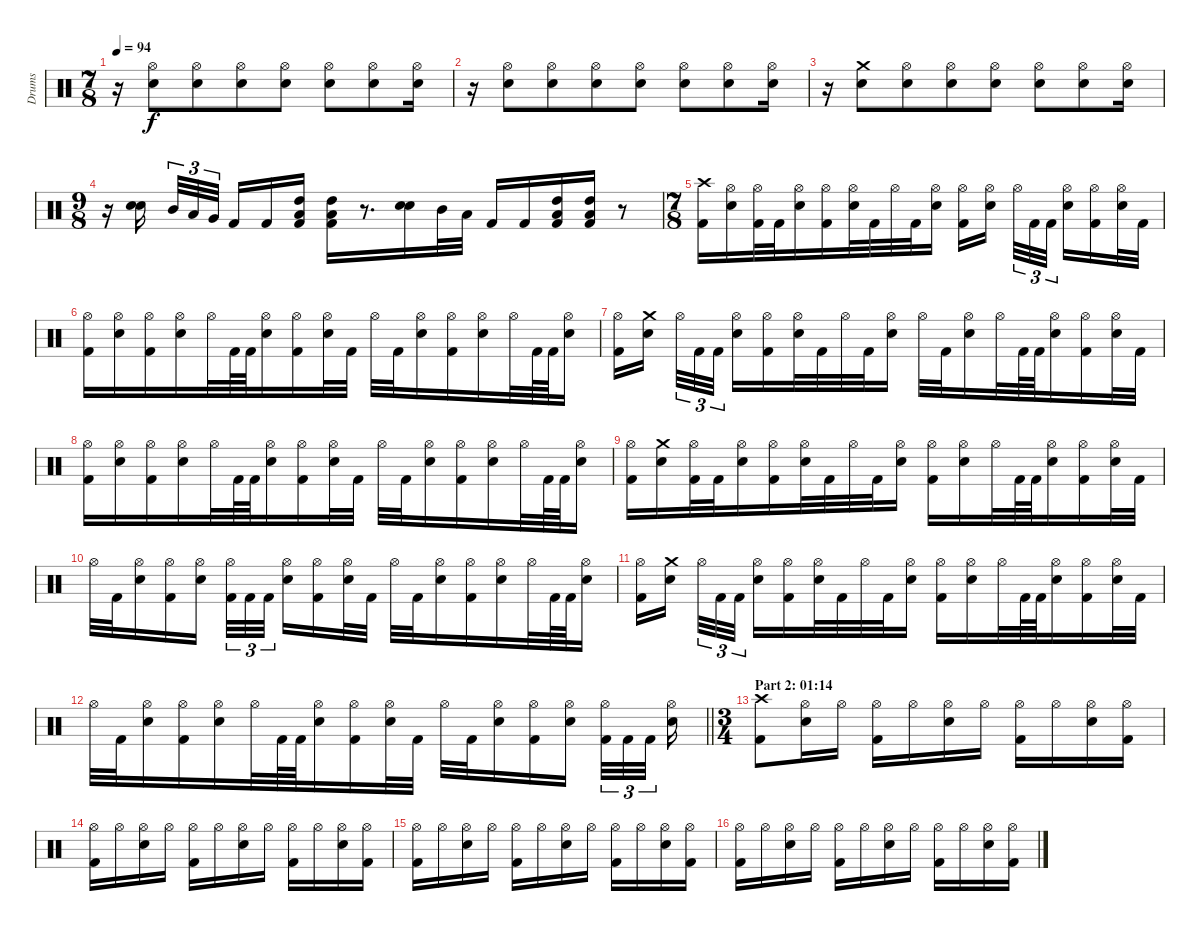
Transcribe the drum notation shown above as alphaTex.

\track ("Drums" "Drums") {instrument percussion}
\staff {score}
\articulation defaults
\ts (7 8)
\tempo 94
\clef neutral
\ks c
r.16{dy f} ("Hi-Hat (open)" "Electric Snare (hit)").8 ("Hi-Hat (open)" "Electric Snare (hit)").8 ("Hi-Hat (open)" "Electric Snare (hit)").8 ("Hi-Hat (open)" "Electric Snare (hit)").8 ("Hi-Hat (open)" "Electric Snare (hit)").8 ("Hi-Hat (open)" "Electric Snare (hit)").8 ("Hi-Hat (open)" "Electric Snare (hit)").16 |
r.16 ("Hi-Hat (open)" "Electric Snare (hit)").8 ("Hi-Hat (open)" "Electric Snare (hit)").8 ("Hi-Hat (open)" "Electric Snare (hit)").8 ("Hi-Hat (open)" "Electric Snare (hit)").8 ("Hi-Hat (open)" "Electric Snare (hit)").8 ("Hi-Hat (open)" "Electric Snare (hit)").8 ("Hi-Hat (open)" "Electric Snare (hit)").16 |
r.16 ("Crash medium (hit)" "Electric Snare (hit)").8 ("Hi-Hat (open)" "Electric Snare (hit)").8 ("Hi-Hat (open)" "Electric Snare (hit)").8 ("Hi-Hat (open)" "Electric Snare (hit)").8 ("Hi-Hat (open)" "Electric Snare (hit)").8 ("Hi-Hat (open)" "Electric Snare (hit)").8 ("Hi-Hat (open)" "Electric Snare (hit)").16 |
\ts (9 8)
r.16 ("Electric Snare (hit)" "Electric Snare (hit)").16{bd 60 beam splitsecondary} "Mid Tom (hit)".32{tu (3 2)} "Low Tom (hit)".32{tu (3 2)} "Very Low Tom (hit)".32{tu (3 2) beam splitsecondary} "Kick (hit) 2".16 "Kick (hit) 2".16 ("High Tom (hit)" "Low Tom (hit)" "Kick (hit) 2").16 ("High Tom (hit)" "Low Tom (hit)" "Kick (hit) 2").16 r.8{d} ("Electric Snare (hit)" "Electric Snare (hit)").16{bd 60} "Mid Tom (hit)".32 "Low Tom (hit)".32 "Kick (hit) 2".16 "Kick (hit) 2".16 ("High Tom (hit)" "Low Tom (hit)" "Kick (hit) 2").16 ("High Tom (hit)" "Low Tom (hit)" "Kick (hit) 2").16 r.8 |
\ts (7 8)
("Crash high (hit)" "Kick (hit) 2").16 ("Hi-Hat (open)" "Electric Snare (hit)").16 ("Hi-Hat (open)" "Kick (hit) 2").32 "Kick (hit) 2".32 ("Hi-Hat (open)" "Electric Snare (hit)").16 ("Hi-Hat (open)" "Kick (hit) 2").16 ("Hi-Hat (open)" "Electric Snare (hit)").32 "Kick (hit) 2".32 "Hi-Hat (open)".32 "Kick (hit) 2".32 ("Hi-Hat (open)" "Electric Snare (hit)").16 ("Hi-Hat (open)" "Kick (hit) 2").16 ("Hi-Hat (open)" "Electric Snare (hit)").16 "Hi-Hat (open)".32{tu (3 2)} "Kick (hit) 2".32{tu (3 2)} "Kick (hit) 2".32{tu (3 2) beam splitsecondary} ("Hi-Hat (open)" "Electric Snare (hit)").16 ("Hi-Hat (open)" "Kick (hit) 2").16 ("Hi-Hat (open)" "Electric Snare (hit)").32 "Kick (hit) 2".32 |
("Hi-Hat (open)" "Kick (hit) 2").16 ("Hi-Hat (open)" "Electric Snare (hit)").16 ("Hi-Hat (open)" "Kick (hit) 2").16 ("Hi-Hat (open)" "Electric Snare (hit)").16 "Hi-Hat (open)".32 "Kick (hit) 2".64 "Kick (hit) 2".64 ("Hi-Hat (open)" "Electric Snare (hit)").16 ("Hi-Hat (open)" "Kick (hit) 2").16 ("Hi-Hat (open)" "Electric Snare (hit)").32 "Kick (hit) 2".32 "Hi-Hat (open)".32 "Kick (hit) 2".32 ("Hi-Hat (open)" "Electric Snare (hit)").16 ("Hi-Hat (open)" "Kick (hit) 2").16 ("Hi-Hat (open)" "Electric Snare (hit)").16 "Hi-Hat (open)".32 "Kick (hit) 2".64 "Kick (hit) 2".64 ("Hi-Hat (open)" "Electric Snare (hit)").16 |
("Hi-Hat (open)" "Kick (hit) 2").16 ("Crash medium (hit)" "Electric Snare (hit)").16 "Hi-Hat (open)".32{tu (3 2)} "Kick (hit) 2".32{tu (3 2)} "Kick (hit) 2".32{tu (3 2) beam splitsecondary} ("Hi-Hat (open)" "Electric Snare (hit)").16 ("Hi-Hat (open)" "Kick (hit) 2").16 ("Hi-Hat (open)" "Electric Snare (hit)").32 "Kick (hit) 2".32 "Hi-Hat (open)".32 "Kick (hit) 2".32 ("Hi-Hat (open)" "Electric Snare (hit)").16 "Hi-Hat (open)".32 "Kick (hit) 2".32 ("Hi-Hat (open)" "Electric Snare (hit)").16 "Hi-Hat (open)".32 "Kick (hit) 2".64 "Kick (hit) 2".64 ("Hi-Hat (open)" "Electric Snare (hit)").16 ("Hi-Hat (open)" "Kick (hit) 2").16 ("Hi-Hat (open)" "Electric Snare (hit)").32 "Kick (hit) 2".32 |
("Hi-Hat (open)" "Kick (hit) 2").16 ("Hi-Hat (open)" "Electric Snare (hit)").16 ("Hi-Hat (open)" "Kick (hit) 2").16 ("Hi-Hat (open)" "Electric Snare (hit)").16 "Hi-Hat (open)".32 "Kick (hit) 2".64 "Kick (hit) 2".64 ("Hi-Hat (open)" "Electric Snare (hit)").16 ("Hi-Hat (open)" "Kick (hit) 2").16 ("Hi-Hat (open)" "Electric Snare (hit)").32 "Kick (hit) 2".32 "Hi-Hat (open)".32 "Kick (hit) 2".32 ("Hi-Hat (open)" "Electric Snare (hit)").16 ("Hi-Hat (open)" "Kick (hit) 2").16 ("Hi-Hat (open)" "Electric Snare (hit)").16 "Hi-Hat (open)".32 "Kick (hit) 2".64 "Kick (hit) 2".64 ("Hi-Hat (open)" "Electric Snare (hit)").16 |
("Hi-Hat (open)" "Kick (hit) 2").16 ("Crash medium (hit)" "Electric Snare (hit)").16 ("Hi-Hat (open)" "Kick (hit) 2").32 "Kick (hit) 2".32 ("Hi-Hat (open)" "Electric Snare (hit)").16 ("Hi-Hat (open)" "Kick (hit) 2").16 ("Hi-Hat (open)" "Electric Snare (hit)").32 "Kick (hit) 2".32 "Hi-Hat (open)".32 "Kick (hit) 2".32 ("Hi-Hat (open)" "Electric Snare (hit)").16 ("Hi-Hat (open)" "Kick (hit) 2").16 ("Hi-Hat (open)" "Electric Snare (hit)").16 "Hi-Hat (open)".32 "Kick (hit) 2".64 "Kick (hit) 2".64 ("Hi-Hat (open)" "Electric Snare (hit)").16 ("Hi-Hat (open)" "Kick (hit) 2").16 ("Hi-Hat (open)" "Electric Snare (hit)").32 "Kick (hit) 2".32 |
"Hi-Hat (open)".32 "Kick (hit) 2".32 ("Hi-Hat (open)" "Electric Snare (hit)").16 ("Hi-Hat (open)" "Kick (hit) 2").16 ("Hi-Hat (open)" "Electric Snare (hit)").16 ("Hi-Hat (open)" "Kick (hit) 2").32{tu (3 2)} "Kick (hit) 2".32{tu (3 2)} "Kick (hit) 2".32{tu (3 2) beam splitsecondary} ("Hi-Hat (open)" "Electric Snare (hit)").16 ("Hi-Hat (open)" "Kick (hit) 2").16 ("Hi-Hat (open)" "Electric Snare (hit)").32 "Kick (hit) 2".32 "Hi-Hat (open)".32 "Kick (hit) 2".32 ("Hi-Hat (open)" "Electric Snare (hit)").16 ("Hi-Hat (open)" "Kick (hit) 2").16 ("Hi-Hat (open)" "Electric Snare (hit)").16 "Hi-Hat (open)".32 "Kick (hit) 2".64 "Kick (hit) 2".64 ("Hi-Hat (open)" "Electric Snare (hit)").16 |
("Hi-Hat (open)" "Kick (hit) 2").16 ("Crash medium (hit)" "Electric Snare (hit)").16 "Hi-Hat (open)".32{tu (3 2)} "Kick (hit) 2".32{tu (3 2)} "Kick (hit) 2".32{tu (3 2) beam splitsecondary} ("Hi-Hat (open)" "Electric Snare (hit)").16 ("Hi-Hat (open)" "Kick (hit) 2").16 ("Hi-Hat (open)" "Electric Snare (hit)").32 "Kick (hit) 2".32 "Hi-Hat (open)".32 "Kick (hit) 2".32 ("Hi-Hat (open)" "Electric Snare (hit)").16 ("Hi-Hat (open)" "Kick (hit) 2").16 ("Hi-Hat (open)" "Electric Snare (hit)").16 "Hi-Hat (open)".32 "Kick (hit) 2".64 "Kick (hit) 2".64 ("Hi-Hat (open)" "Electric Snare (hit)").16 ("Hi-Hat (open)" "Kick (hit) 2").16 ("Hi-Hat (open)" "Electric Snare (hit)").32 "Kick (hit) 2".32 |
\barLineRight lightlight "Hi-Hat (open)".32 "Kick (hit) 2".32
("Hi-Hat (open)" "Electric Snare (hit)").16 ("Hi-Hat (open)" "Kick (hit) 2").16 ("Hi-Hat (open)" "Electric Snare (hit)").16 "Hi-Hat (open)".32 "Kick (hit) 2".64 "Kick (hit) 2".64 ("Hi-Hat (open)" "Electric Snare (hit)").16 ("Hi-Hat (open)" "Kick (hit) 2").16 ("Hi-Hat (open)" "Electric Snare (hit)").32 "Kick (hit) 2".32 "Hi-Hat (open)".32 "Kick (hit) 2".32 ("Hi-Hat (open)" "Electric Snare (hit)").16 ("Hi-Hat (open)" "Kick (hit) 2").16 ("Hi-Hat (open)" "Electric Snare (hit)").16 ("Hi-Hat (open)" "Kick (hit) 2").32{tu (3 2)} "Kick (hit) 2".32{tu (3 2)} "Kick (hit) 2".32{tu (3 2) beam splitsecondary} ("Hi-Hat (open)" "Electric Snare (hit)").16 |
\ts (3 4)
\section ("" "Part 2: 01:14")
("Crash high (hit)" "Kick (hit) 2").8 ("Hi-Hat (open)" "Electric Snare (hit)").16 "Hi-Hat (open)".16 ("Hi-Hat (open)" "Kick (hit) 2").16 "Hi-Hat (open)".16 ("Hi-Hat (open)" "Electric Snare (hit)").16 "Hi-Hat (open)".16 ("Hi-Hat (open)" "Kick (hit) 2").16 "Hi-Hat (open)".16 ("Hi-Hat (open)" "Electric Snare (hit)").16 ("Hi-Hat (open)" "Kick (hit) 2").16 |
("Hi-Hat (open)" "Kick (hit) 2").16 "Hi-Hat (open)".16 ("Hi-Hat (open)" "Electric Snare (hit)").16 "Hi-Hat (open)".16 ("Hi-Hat (open)" "Kick (hit) 2").16 "Hi-Hat (open)".16 ("Hi-Hat (open)" "Electric Snare (hit)").16 "Hi-Hat (open)".16 ("Hi-Hat (open)" "Kick (hit) 2").16 "Hi-Hat (open)".16 ("Hi-Hat (open)" "Electric Snare (hit)").16 ("Hi-Hat (open)" "Kick (hit) 2").16 |
("Hi-Hat (open)" "Kick (hit) 2").16 "Hi-Hat (open)".16 ("Hi-Hat (open)" "Electric Snare (hit)").16 "Hi-Hat (open)".16 ("Hi-Hat (open)" "Kick (hit) 2").16 "Hi-Hat (open)".16 ("Hi-Hat (open)" "Electric Snare (hit)").16 "Hi-Hat (open)".16 ("Hi-Hat (open)" "Kick (hit) 2").16 "Hi-Hat (open)".16 ("Hi-Hat (open)" "Electric Snare (hit)").16 ("Hi-Hat (open)" "Kick (hit) 2").16 |
("Hi-Hat (open)" "Kick (hit) 2").16 "Hi-Hat (open)".16 ("Hi-Hat (open)" "Electric Snare (hit)").16 "Hi-Hat (open)".16 ("Hi-Hat (open)" "Kick (hit) 2").16 "Hi-Hat (open)".16 ("Hi-Hat (open)" "Electric Snare (hit)").16 "Hi-Hat (open)".16 ("Hi-Hat (open)" "Kick (hit) 2").16 "Hi-Hat (open)".16 ("Hi-Hat (open)" "Electric Snare (hit)").16 ("Hi-Hat (open)" "Kick (hit) 2").16
